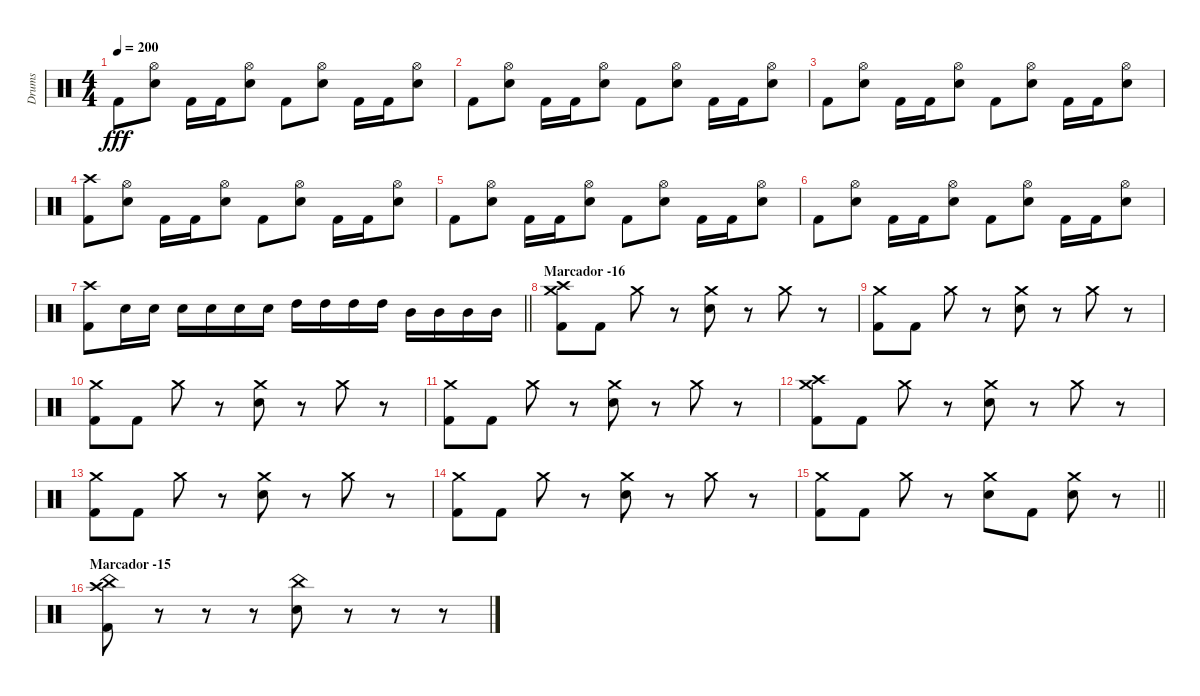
\track ("Drums" "Drums") {instrument percussion}
\staff {score}
\articulation defaults
\ts (4 4)
\tempo 200
\clef neutral
\ks c "Kick (hit) 2".8{dy fff}
("Hi-Hat (open)" "Electric Snare (hit)").8 "Kick (hit) 2".16 "Kick (hit) 2".16 ("Hi-Hat (open)" "Electric Snare (hit)").8 "Kick (hit) 2".8 ("Hi-Hat (open)" "Electric Snare (hit)").8 "Kick (hit) 2".16 "Kick (hit) 2".16 ("Hi-Hat (open)" "Electric Snare (hit)").8 |
"Kick (hit) 2".8 ("Hi-Hat (open)" "Electric Snare (hit)").8 "Kick (hit) 2".16 "Kick (hit) 2".16 ("Hi-Hat (open)" "Electric Snare (hit)").8 "Kick (hit) 2".8 ("Hi-Hat (open)" "Electric Snare (hit)").8 "Kick (hit) 2".16 "Kick (hit) 2".16 ("Hi-Hat (open)" "Electric Snare (hit)").8 |
"Kick (hit) 2".8 ("Hi-Hat (open)" "Electric Snare (hit)").8 "Kick (hit) 2".16 "Kick (hit) 2".16 ("Hi-Hat (open)" "Electric Snare (hit)").8 "Kick (hit) 2".8 ("Hi-Hat (open)" "Electric Snare (hit)").8 "Kick (hit) 2".16 "Kick (hit) 2".16 ("Hi-Hat (open)" "Electric Snare (hit)").8 |
("Crash high (hit)" "Kick (hit) 2").8 ("Hi-Hat (open)" "Electric Snare (hit)").8 "Kick (hit) 2".16 "Kick (hit) 2".16 ("Hi-Hat (open)" "Electric Snare (hit)").8 "Kick (hit) 2".8 ("Hi-Hat (open)" "Electric Snare (hit)").8 "Kick (hit) 2".16 "Kick (hit) 2".16 ("Hi-Hat (open)" "Electric Snare (hit)").8 |
"Kick (hit) 2".8 ("Hi-Hat (open)" "Electric Snare (hit)").8 "Kick (hit) 2".16 "Kick (hit) 2".16 ("Hi-Hat (open)" "Electric Snare (hit)").8 "Kick (hit) 2".8 ("Hi-Hat (open)" "Electric Snare (hit)").8 "Kick (hit) 2".16 "Kick (hit) 2".16 ("Hi-Hat (open)" "Electric Snare (hit)").8 |
"Kick (hit) 2".8 ("Hi-Hat (open)" "Electric Snare (hit)").8 "Kick (hit) 2".16 "Kick (hit) 2".16 ("Hi-Hat (open)" "Electric Snare (hit)").8 "Kick (hit) 2".8 ("Hi-Hat (open)" "Electric Snare (hit)").8 "Kick (hit) 2".16 "Kick (hit) 2".16 ("Hi-Hat (open)" "Electric Snare (hit)").8 |
\barLineRight lightlight
("Crash high (hit)" "Kick (hit) 2").8 "Electric Snare (hit)".16 "Electric Snare (hit)".16 "Electric Snare (hit)".16 "Electric Snare (hit)".16 "Electric Snare (hit)".16 "Electric Snare (hit)".16 "High Tom (hit)".16 "High Tom (hit)".16 "High Tom (hit)".16 "High Tom (hit)".16 "Mid Tom (hit)".16 "Mid Tom (hit)".16 "Mid Tom (hit)".16 "Mid Tom (hit)".16 |
\section ("" "Marcador -16")
("Crash medium (hit)" "Crash high (hit)" "Kick (hit) 2").8 "Kick (hit) 2".8 "Crash medium (hit)".8 r.8 ("Crash medium (hit)" "Electric Snare (hit)").8 r.8 "Crash medium (hit)".8 r.8 |
("Crash medium (hit)" "Kick (hit) 2").8 "Kick (hit) 2".8 "Crash medium (hit)".8 r.8 ("Crash medium (hit)" "Electric Snare (hit)").8 r.8 "Crash medium (hit)".8 r.8 |
("Crash medium (hit)" "Kick (hit) 2").8 "Kick (hit) 2".8 "Crash medium (hit)".8 r.8 ("Crash medium (hit)" "Electric Snare (hit)").8 r.8 "Crash medium (hit)".8 r.8 |
("Crash medium (hit)" "Kick (hit) 2").8 "Kick (hit) 2".8 "Crash medium (hit)".8 r.8 ("Crash medium (hit)" "Electric Snare (hit)").8 r.8 "Crash medium (hit)".8 r.8 |
("Crash medium (hit)" "Crash high (hit)" "Kick (hit) 2").8 "Kick (hit) 2".8 "Crash medium (hit)".8 r.8 ("Crash medium (hit)" "Electric Snare (hit)").8 r.8 "Crash medium (hit)".8 r.8 |
("Crash medium (hit)" "Kick (hit) 2").8 "Kick (hit) 2".8 "Crash medium (hit)".8 r.8 ("Crash medium (hit)" "Electric Snare (hit)").8 r.8 "Crash medium (hit)".8 r.8 |
("Crash medium (hit)" "Kick (hit) 2").8 "Kick (hit) 2".8 "Crash medium (hit)".8 r.8 ("Crash medium (hit)" "Electric Snare (hit)").8 r.8 "Crash medium (hit)".8 r.8 |
\barLineRight lightlight
("Crash medium (hit)" "Kick (hit) 2").8 "Kick (hit) 2".8 "Crash medium (hit)".8 r.8 ("Crash medium (hit)" "Electric Snare (hit)").8 "Kick (hit) 2".8 ("Crash medium (hit)" "Electric Snare (hit)").8 r.8 |
\section ("" "Marcador -15")
("China (hit)" "Crash high (hit)" "Kick (hit) 2").8 r.8 r.8 r.8 ("China (hit)" "Electric Snare (hit)").8 r.8 r.8 r.8
